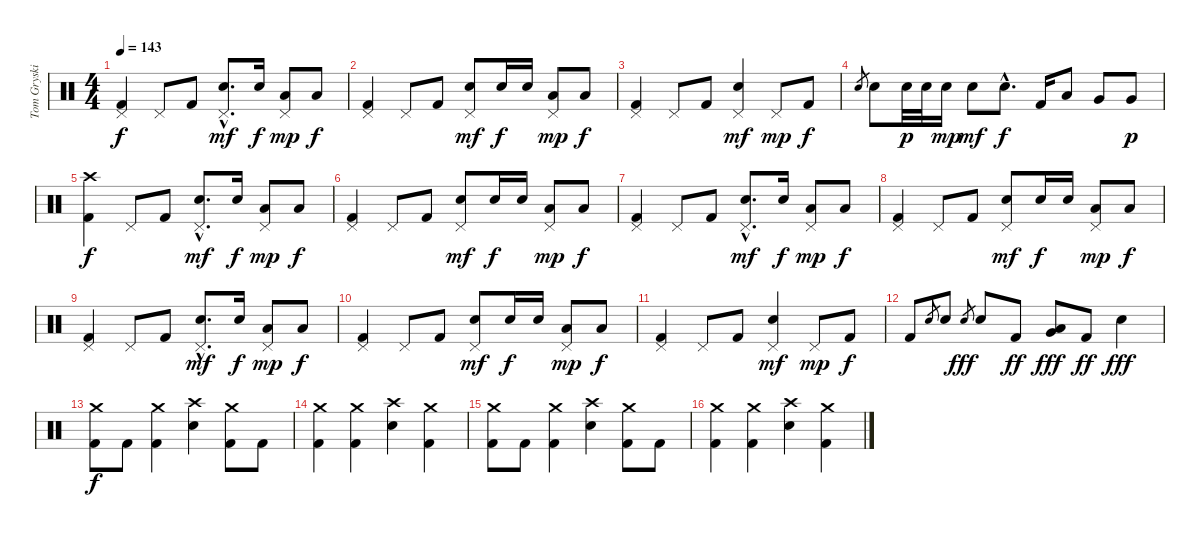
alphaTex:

\track ("Tom Gryskiewicz - Drums" "Tom Gryski") {instrument percussion}
\staff {score}
\articulation defaults
\ts (4 4)
\tempo 143
\clef neutral
\ks c
("Pedal Hi-Hat (hit)" "Kick (hit) 2").4{dy f} "Pedal Hi-Hat (hit)".8 "Kick (hit) 2".8 ("Pedal Hi-Hat (hit)"{hac} "Electric Snare (hit)"{hac}).8{d dy mf} "Electric Snare (hit)".16{dy f} ("Pedal Hi-Hat (hit)" "Low Tom (hit)").8{dy mp} "Low Tom (hit)".8{dy f} |
("Pedal Hi-Hat (hit)" "Kick (hit) 2").4 "Pedal Hi-Hat (hit)".8 "Kick (hit) 2".8 ("Pedal Hi-Hat (hit)" "Electric Snare (hit)").8{dy mf} "Electric Snare (hit)".16{dy f} "Electric Snare (hit)".16 ("Pedal Hi-Hat (hit)" "Low Tom (hit)").8{dy mp} "Low Tom (hit)".8{dy f} |
("Pedal Hi-Hat (hit)" "Kick (hit) 2").4 "Pedal Hi-Hat (hit)".8 "Kick (hit) 2".8 ("Pedal Hi-Hat (hit)" "Electric Snare (hit)").4{dy mf} "Pedal Hi-Hat (hit)".8{dy mp} "Kick (hit) 2".8{dy f} |
"Electric Snare (hit)".8{gr} "Electric Snare (hit)".8 "Electric Snare (hit)".32{dy p} "Electric Snare (hit)".32 "Electric Snare (hit)".16{dy mp} "Electric Snare (hit)".8{dy mf} "Electric Snare (hit)"{hac}.8{d dy f} "Kick (hit) 2".16 "Low Tom (hit)".8 "Very Low Tom (hit)".8 "Very Low Tom (hit)".8{dy p} |
("Crash high (hit)" "Kick (hit) 2").4{dy f} "Pedal Hi-Hat (hit)".8 "Kick (hit) 2".8 ("Pedal Hi-Hat (hit)"{hac} "Electric Snare (hit)"{hac}).8{d dy mf} "Electric Snare (hit)".16{dy f} ("Pedal Hi-Hat (hit)" "Low Tom (hit)").8{dy mp} "Low Tom (hit)".8{dy f} |
("Pedal Hi-Hat (hit)" "Kick (hit) 2").4 "Pedal Hi-Hat (hit)".8 "Kick (hit) 2".8 ("Pedal Hi-Hat (hit)" "Electric Snare (hit)").8{dy mf} "Electric Snare (hit)".16{dy f} "Electric Snare (hit)".16 ("Pedal Hi-Hat (hit)" "Low Tom (hit)").8{dy mp} "Low Tom (hit)".8{dy f} |
("Pedal Hi-Hat (hit)" "Kick (hit) 2").4 "Pedal Hi-Hat (hit)".8 "Kick (hit) 2".8 ("Pedal Hi-Hat (hit)"{hac} "Electric Snare (hit)"{hac}).8{d dy mf} "Electric Snare (hit)".16{dy f} ("Pedal Hi-Hat (hit)" "Low Tom (hit)").8{dy mp} "Low Tom (hit)".8{dy f} |
("Pedal Hi-Hat (hit)" "Kick (hit) 2").4 "Pedal Hi-Hat (hit)".8 "Kick (hit) 2".8 ("Pedal Hi-Hat (hit)" "Electric Snare (hit)").8{dy mf} "Electric Snare (hit)".16{dy f} "Electric Snare (hit)".16 ("Pedal Hi-Hat (hit)" "Low Tom (hit)").8{dy mp} "Low Tom (hit)".8{dy f} |
("Pedal Hi-Hat (hit)" "Kick (hit) 2").4 "Pedal Hi-Hat (hit)".8 "Kick (hit) 2".8 ("Pedal Hi-Hat (hit)"{hac} "Electric Snare (hit)"{hac}).8{d dy mf} "Electric Snare (hit)".16{dy f} ("Pedal Hi-Hat (hit)" "Low Tom (hit)").8{dy mp} "Low Tom (hit)".8{dy f} |
("Pedal Hi-Hat (hit)" "Kick (hit) 2").4 "Pedal Hi-Hat (hit)".8 "Kick (hit) 2".8 ("Pedal Hi-Hat (hit)" "Electric Snare (hit)").8{dy mf} "Electric Snare (hit)".16{dy f} "Electric Snare (hit)".16 ("Pedal Hi-Hat (hit)" "Low Tom (hit)").8{dy mp} "Low Tom (hit)".8{dy f} |
("Pedal Hi-Hat (hit)" "Kick (hit) 2").4 "Pedal Hi-Hat (hit)".8 "Kick (hit) 2".8 ("Pedal Hi-Hat (hit)" "Electric Snare (hit)").4{dy mf} "Pedal Hi-Hat (hit)".8{dy mp} "Kick (hit) 2".8{dy f} |
"Kick (hit) 2".8 "Electric Snare (hit)".8{gr} "Electric Snare (hit)".8 "Electric Snare (hit)".8{gr dy fff} "Electric Snare (hit)".8 "Kick (hit) 2".8{dy ff} ("Very Low Tom (hit)" "Low Tom (hit)").8{dy fff} "Kick (hit) 2".8{dy ff} "Electric Snare (hit)".4{dy fff} |
("Crash medium (hit)" "Kick (hit) 2").8{dy f} "Kick (hit) 2".8 ("Crash medium (hit)" "Kick (hit) 2").4 ("Crash high (hit)" "Electric Snare (hit)").4 ("Crash medium (hit)" "Kick (hit) 2").8 "Kick (hit) 2".8 |
("Crash medium (hit)" "Kick (hit) 2").4 ("Crash medium (hit)" "Kick (hit) 2").4 ("Crash high (hit)" "Electric Snare (hit)").4 ("Crash medium (hit)" "Kick (hit) 2").4 |
("Crash medium (hit)" "Kick (hit) 2").8 "Kick (hit) 2".8 ("Crash medium (hit)" "Kick (hit) 2").4 ("Crash high (hit)" "Electric Snare (hit)").4 ("Crash medium (hit)" "Kick (hit) 2").8 "Kick (hit) 2".8 |
("Crash medium (hit)" "Kick (hit) 2").4 ("Crash medium (hit)" "Kick (hit) 2").4 ("Crash high (hit)" "Electric Snare (hit)").4 ("Crash medium (hit)" "Kick (hit) 2").4
